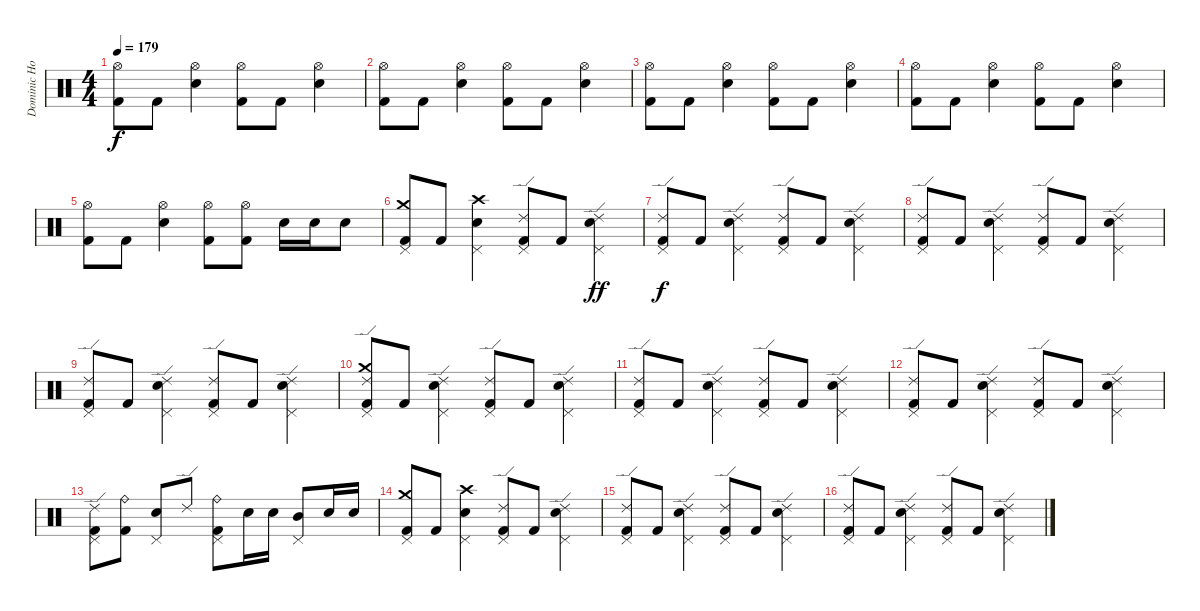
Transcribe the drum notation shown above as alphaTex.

\track ("Dominic Howard" "Dominic Ho") {instrument percussion}
\staff {score}
\articulation defaults
\ts (4 4)
\tempo 179
\clef neutral
\ks c
("Hi-Hat (open)" "Kick (hit) 2").8{dy f} "Kick (hit) 2".8 ("Hi-Hat (open)" "Electric Snare (hit)").4 ("Hi-Hat (open)" "Kick (hit) 2").8 "Kick (hit) 2".8 ("Hi-Hat (open)" "Electric Snare (hit)").4 |
("Hi-Hat (open)" "Kick (hit) 2").8 "Kick (hit) 2".8 ("Hi-Hat (open)" "Electric Snare (hit)").4 ("Hi-Hat (open)" "Kick (hit) 2").8 "Kick (hit) 2".8 ("Hi-Hat (open)" "Electric Snare (hit)").4 |
("Hi-Hat (open)" "Kick (hit) 2").8 "Kick (hit) 2".8 ("Hi-Hat (open)" "Electric Snare (hit)").4 ("Hi-Hat (open)" "Kick (hit) 2").8 "Kick (hit) 2".8 ("Hi-Hat (open)" "Electric Snare (hit)").4 |
("Hi-Hat (open)" "Kick (hit) 2").8 "Kick (hit) 2".8 ("Hi-Hat (open)" "Electric Snare (hit)").4 ("Hi-Hat (open)" "Kick (hit) 2").8 "Kick (hit) 2".8 ("Hi-Hat (open)" "Electric Snare (hit)").4 |
("Hi-Hat (open)" "Kick (hit) 2").8 "Kick (hit) 2".8 ("Hi-Hat (open)" "Electric Snare (hit)").4 ("Hi-Hat (open)" "Kick (hit) 2").8 ("Hi-Hat (open)" "Kick (hit) 2").8 "Electric Snare (hit)".16 "Electric Snare (hit)".16 "Electric Snare (hit)".8 |
("Crash medium (hit)" "Pedal Hi-Hat (hit)" "Kick (hit) 2").8 "Kick (hit) 2".8 ("Crash high (hit)" "Electric Snare (hit)" "Pedal Hi-Hat (hit)").4 ("Ride (edge) 2" "Pedal Hi-Hat (hit)" "Kick (hit) 2").8 "Kick (hit) 2".8 ("Ride (edge) 2" "Electric Snare (hit)" "Pedal Hi-Hat (hit)").4{dy ff} |
("Ride (edge) 2" "Pedal Hi-Hat (hit)" "Kick (hit) 2").8{dy f} "Kick (hit) 2".8 ("Ride (edge) 2" "Electric Snare (hit)" "Pedal Hi-Hat (hit)").4 ("Ride (edge) 2" "Pedal Hi-Hat (hit)" "Kick (hit) 2").8 "Kick (hit) 2".8 ("Ride (edge) 2" "Electric Snare (hit)" "Pedal Hi-Hat (hit)").4 |
("Ride (edge) 2" "Pedal Hi-Hat (hit)" "Kick (hit) 2").8 "Kick (hit) 2".8 ("Ride (edge) 2" "Electric Snare (hit)" "Pedal Hi-Hat (hit)").4 ("Ride (edge) 2" "Pedal Hi-Hat (hit)" "Kick (hit) 2").8 "Kick (hit) 2".8 ("Ride (edge) 2" "Electric Snare (hit)" "Pedal Hi-Hat (hit)").4 |
("Ride (edge) 2" "Pedal Hi-Hat (hit)" "Kick (hit) 2").8 "Kick (hit) 2".8 ("Ride (edge) 2" "Electric Snare (hit)" "Pedal Hi-Hat (hit)").4 ("Ride (edge) 2" "Pedal Hi-Hat (hit)" "Kick (hit) 2").8 "Kick (hit) 2".8 ("Ride (edge) 2" "Electric Snare (hit)" "Pedal Hi-Hat (hit)").4 |
("Crash medium (hit)" "Ride (edge) 2" "Pedal Hi-Hat (hit)" "Kick (hit) 2").8 "Kick (hit) 2".8 ("Ride (edge) 2" "Electric Snare (hit)" "Pedal Hi-Hat (hit)").4 ("Ride (edge) 2" "Pedal Hi-Hat (hit)" "Kick (hit) 2").8 "Kick (hit) 2".8 ("Ride (edge) 2" "Electric Snare (hit)" "Pedal Hi-Hat (hit)").4 |
("Ride (edge) 2" "Pedal Hi-Hat (hit)" "Kick (hit) 2").8 "Kick (hit) 2".8 ("Ride (edge) 2" "Electric Snare (hit)" "Pedal Hi-Hat (hit)").4 ("Ride (edge) 2" "Pedal Hi-Hat (hit)" "Kick (hit) 2").8 "Kick (hit) 2".8 ("Ride (edge) 2" "Electric Snare (hit)" "Pedal Hi-Hat (hit)").4 |
("Ride (edge) 2" "Pedal Hi-Hat (hit)" "Kick (hit) 2").8 "Kick (hit) 2".8 ("Ride (edge) 2" "Electric Snare (hit)" "Pedal Hi-Hat (hit)").4 ("Ride (edge) 2" "Pedal Hi-Hat (hit)" "Kick (hit) 2").8 "Kick (hit) 2".8 ("Ride (edge) 2" "Electric Snare (hit)" "Pedal Hi-Hat (hit)").4 |
("Ride (edge) 2" "Pedal Hi-Hat (hit)" "Kick (hit) 2").8 ("Ride (bell)" "Kick (hit) 2").8 ("Electric Snare (hit)" "Pedal Hi-Hat (hit)").8 "Ride (edge) 2".8 ("Ride (bell)" "Pedal Hi-Hat (hit)" "Kick (hit) 2").8 "Electric Snare (hit)".16 "Electric Snare (hit)".16 ("Mid Tom (hit)" "Pedal Hi-Hat (hit)").8 "Electric Snare (hit)".16 "Electric Snare (hit)".16 |
("Crash medium (hit)" "Pedal Hi-Hat (hit)" "Kick (hit) 2").8 "Kick (hit) 2".8 ("Crash high (hit)" "Electric Snare (hit)" "Pedal Hi-Hat (hit)").4 ("Ride (edge) 2" "Pedal Hi-Hat (hit)" "Kick (hit) 2").8 "Kick (hit) 2".8 ("Ride (edge) 2" "Electric Snare (hit)" "Pedal Hi-Hat (hit)").4 |
("Ride (edge) 2" "Pedal Hi-Hat (hit)" "Kick (hit) 2").8 "Kick (hit) 2".8 ("Ride (edge) 2" "Electric Snare (hit)" "Pedal Hi-Hat (hit)").4 ("Ride (edge) 2" "Pedal Hi-Hat (hit)" "Kick (hit) 2").8 "Kick (hit) 2".8 ("Ride (edge) 2" "Electric Snare (hit)" "Pedal Hi-Hat (hit)").4 |
("Ride (edge) 2" "Pedal Hi-Hat (hit)" "Kick (hit) 2").8 "Kick (hit) 2".8 ("Ride (edge) 2" "Electric Snare (hit)" "Pedal Hi-Hat (hit)").4 ("Ride (edge) 2" "Pedal Hi-Hat (hit)" "Kick (hit) 2").8 "Kick (hit) 2".8 ("Ride (edge) 2" "Electric Snare (hit)" "Pedal Hi-Hat (hit)").4
